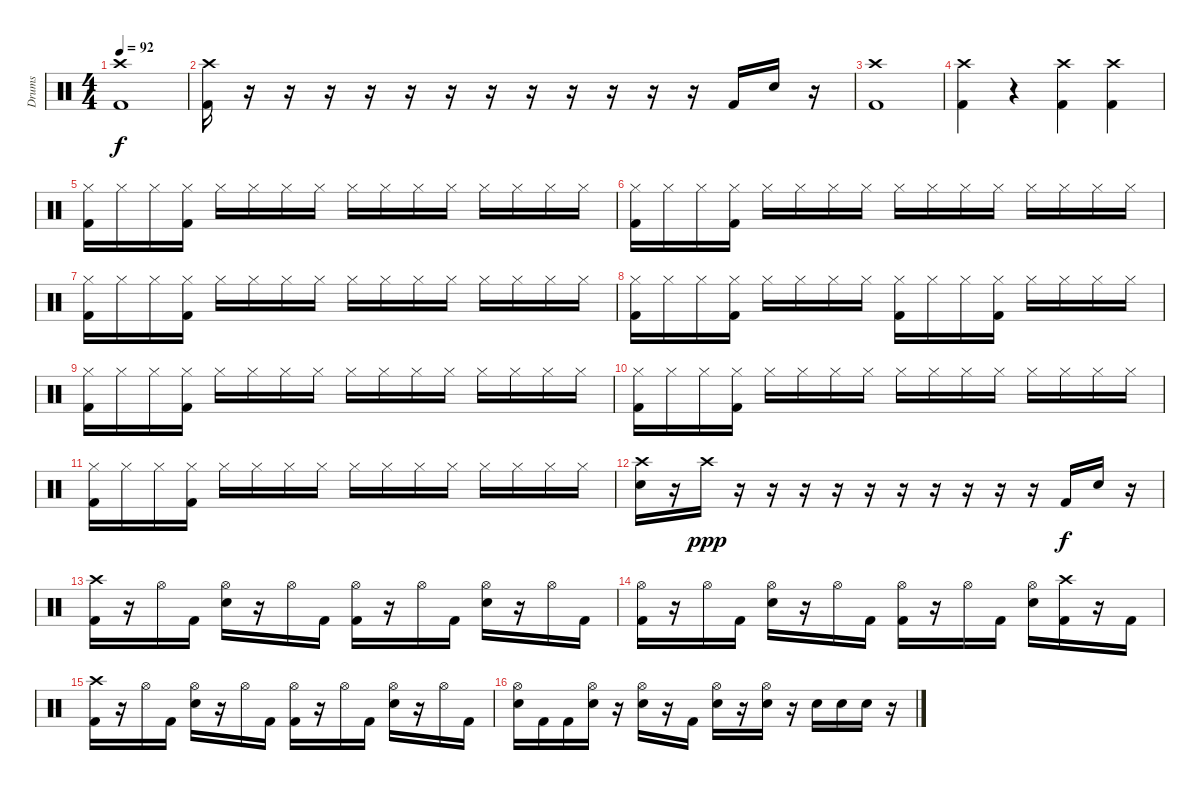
\track ("Drums" "Drums") {instrument percussion}
\staff {score}
\articulation defaults
\ts (4 4)
\tempo 92
\clef neutral
\ks c
("Crash high (hit)" "Kick (hit) 2").1{dy f} |
("Crash high (hit)" "Kick (hit) 2").16 r.16 r.16 r.16 r.16 r.16 r.16 r.16 r.16 r.16 r.16 r.16 r.16 "Kick (hit) 2".16 "Electric Snare (hit)".16 r.16 |
("Crash high (hit)" "Kick (hit) 2").1 |
("Crash high (hit)" "Kick (hit) 2").4 r.4 ("Crash high (hit)" "Kick (hit) 2").4 ("Crash high (hit)" "Kick (hit) 2").4 |
("Hi-Hat (closed)" "Kick (hit) 2").16 "Hi-Hat (closed)".16 "Hi-Hat (closed)".16 ("Hi-Hat (closed)" "Kick (hit) 2").16 "Hi-Hat (closed)".16 "Hi-Hat (closed)".16 "Hi-Hat (closed)".16 "Hi-Hat (closed)".16 "Hi-Hat (closed)".16 "Hi-Hat (closed)".16 "Hi-Hat (closed)".16 "Hi-Hat (closed)".16 "Hi-Hat (closed)".16 "Hi-Hat (closed)".16 "Hi-Hat (closed)".16 "Hi-Hat (closed)".16 |
("Hi-Hat (closed)" "Kick (hit) 2").16 "Hi-Hat (closed)".16 "Hi-Hat (closed)".16 ("Hi-Hat (closed)" "Kick (hit) 2").16 "Hi-Hat (closed)".16 "Hi-Hat (closed)".16 "Hi-Hat (closed)".16 "Hi-Hat (closed)".16 "Hi-Hat (closed)".16 "Hi-Hat (closed)".16 "Hi-Hat (closed)".16 "Hi-Hat (closed)".16 "Hi-Hat (closed)".16 "Hi-Hat (closed)".16 "Hi-Hat (closed)".16 "Hi-Hat (closed)".16 |
("Hi-Hat (closed)" "Kick (hit) 2").16 "Hi-Hat (closed)".16 "Hi-Hat (closed)".16 ("Hi-Hat (closed)" "Kick (hit) 2").16 "Hi-Hat (closed)".16 "Hi-Hat (closed)".16 "Hi-Hat (closed)".16 "Hi-Hat (closed)".16 "Hi-Hat (closed)".16 "Hi-Hat (closed)".16 "Hi-Hat (closed)".16 "Hi-Hat (closed)".16 "Hi-Hat (closed)".16 "Hi-Hat (closed)".16 "Hi-Hat (closed)".16 "Hi-Hat (closed)".16 |
("Hi-Hat (closed)" "Kick (hit) 2").16 "Hi-Hat (closed)".16 "Hi-Hat (closed)".16 ("Hi-Hat (closed)" "Kick (hit) 2").16 "Hi-Hat (closed)".16 "Hi-Hat (closed)".16 "Hi-Hat (closed)".16 "Hi-Hat (closed)".16 ("Hi-Hat (closed)" "Kick (hit) 2").16 "Hi-Hat (closed)".16 "Hi-Hat (closed)".16 ("Hi-Hat (closed)" "Kick (hit) 2").16 "Hi-Hat (closed)".16 "Hi-Hat (closed)".16 "Hi-Hat (closed)".16 "Hi-Hat (closed)".16 |
("Hi-Hat (closed)" "Kick (hit) 2").16 "Hi-Hat (closed)".16 "Hi-Hat (closed)".16 ("Hi-Hat (closed)" "Kick (hit) 2").16 "Hi-Hat (closed)".16 "Hi-Hat (closed)".16 "Hi-Hat (closed)".16 "Hi-Hat (closed)".16 "Hi-Hat (closed)".16 "Hi-Hat (closed)".16 "Hi-Hat (closed)".16 "Hi-Hat (closed)".16 "Hi-Hat (closed)".16 "Hi-Hat (closed)".16 "Hi-Hat (closed)".16 "Hi-Hat (closed)".16 |
("Hi-Hat (closed)" "Kick (hit) 2").16 "Hi-Hat (closed)".16 "Hi-Hat (closed)".16 ("Hi-Hat (closed)" "Kick (hit) 2").16 "Hi-Hat (closed)".16 "Hi-Hat (closed)".16 "Hi-Hat (closed)".16 "Hi-Hat (closed)".16 "Hi-Hat (closed)".16 "Hi-Hat (closed)".16 "Hi-Hat (closed)".16 "Hi-Hat (closed)".16 "Hi-Hat (closed)".16 "Hi-Hat (closed)".16 "Hi-Hat (closed)".16 "Hi-Hat (closed)".16 |
("Hi-Hat (closed)" "Kick (hit) 2").16 "Hi-Hat (closed)".16 "Hi-Hat (closed)".16 ("Hi-Hat (closed)" "Kick (hit) 2").16 "Hi-Hat (closed)".16 "Hi-Hat (closed)".16 "Hi-Hat (closed)".16 "Hi-Hat (closed)".16 "Hi-Hat (closed)".16 "Hi-Hat (closed)".16 "Hi-Hat (closed)".16 "Hi-Hat (closed)".16 "Hi-Hat (closed)".16 "Hi-Hat (closed)".16 "Hi-Hat (closed)".16 "Hi-Hat (closed)".16 |
("Crash high (hit)" "Electric Snare (hit)").16 r.16 "Crash high (hit)".16{dy ppp} r.16 r.16 r.16 r.16 r.16 r.16 r.16 r.16 r.16 r.16 "Kick (hit) 2".16{dy f} "Electric Snare (hit)".16 r.16 |
("Crash high (hit)" "Kick (hit) 2").16 r.16 "Hi-Hat (open)".16 "Kick (hit) 2".16 ("Hi-Hat (open)" "Electric Snare (hit)").16 r.16 "Hi-Hat (open)".16 "Kick (hit) 2".16 ("Hi-Hat (open)" "Kick (hit) 2").16 r.16 "Hi-Hat (open)".16 "Kick (hit) 2".16 ("Hi-Hat (open)" "Electric Snare (hit)").16 r.16 "Hi-Hat (open)".16 "Kick (hit) 2".16 |
("Hi-Hat (open)" "Kick (hit) 2").16 r.16 "Hi-Hat (open)".16 "Kick (hit) 2".16 ("Hi-Hat (open)" "Electric Snare (hit)").16 r.16 "Hi-Hat (open)".16 "Kick (hit) 2".16 ("Hi-Hat (open)" "Kick (hit) 2").16 r.16 "Hi-Hat (open)".16 "Kick (hit) 2".16 ("Hi-Hat (open)" "Electric Snare (hit)").16 ("Crash high (hit)" "Kick (hit) 2").16 r.16 "Kick (hit) 2".16 |
("Crash high (hit)" "Kick (hit) 2").16 r.16 "Hi-Hat (open)".16 "Kick (hit) 2".16 ("Hi-Hat (open)" "Electric Snare (hit)").16 r.16 "Hi-Hat (open)".16 "Kick (hit) 2".16 ("Hi-Hat (open)" "Kick (hit) 2").16 r.16 "Hi-Hat (open)".16 "Kick (hit) 2".16 ("Hi-Hat (open)" "Electric Snare (hit)").16 r.16 "Hi-Hat (open)".16 "Kick (hit) 2".16 |
("Hi-Hat (open)" "Electric Snare (hit)").16 "Kick (hit) 2".16 "Kick (hit) 2".16 ("Hi-Hat (open)" "Electric Snare (hit)").16 r.16 ("Hi-Hat (open)" "Electric Snare (hit)").16 r.16 "Kick (hit) 2".16 ("Hi-Hat (open)" "Electric Snare (hit)").16 r.16 ("Hi-Hat (open)" "Electric Snare (hit)").16 r.16 "Electric Snare (hit)".16 "Electric Snare (hit)".16 "Electric Snare (hit)".16 r.16
